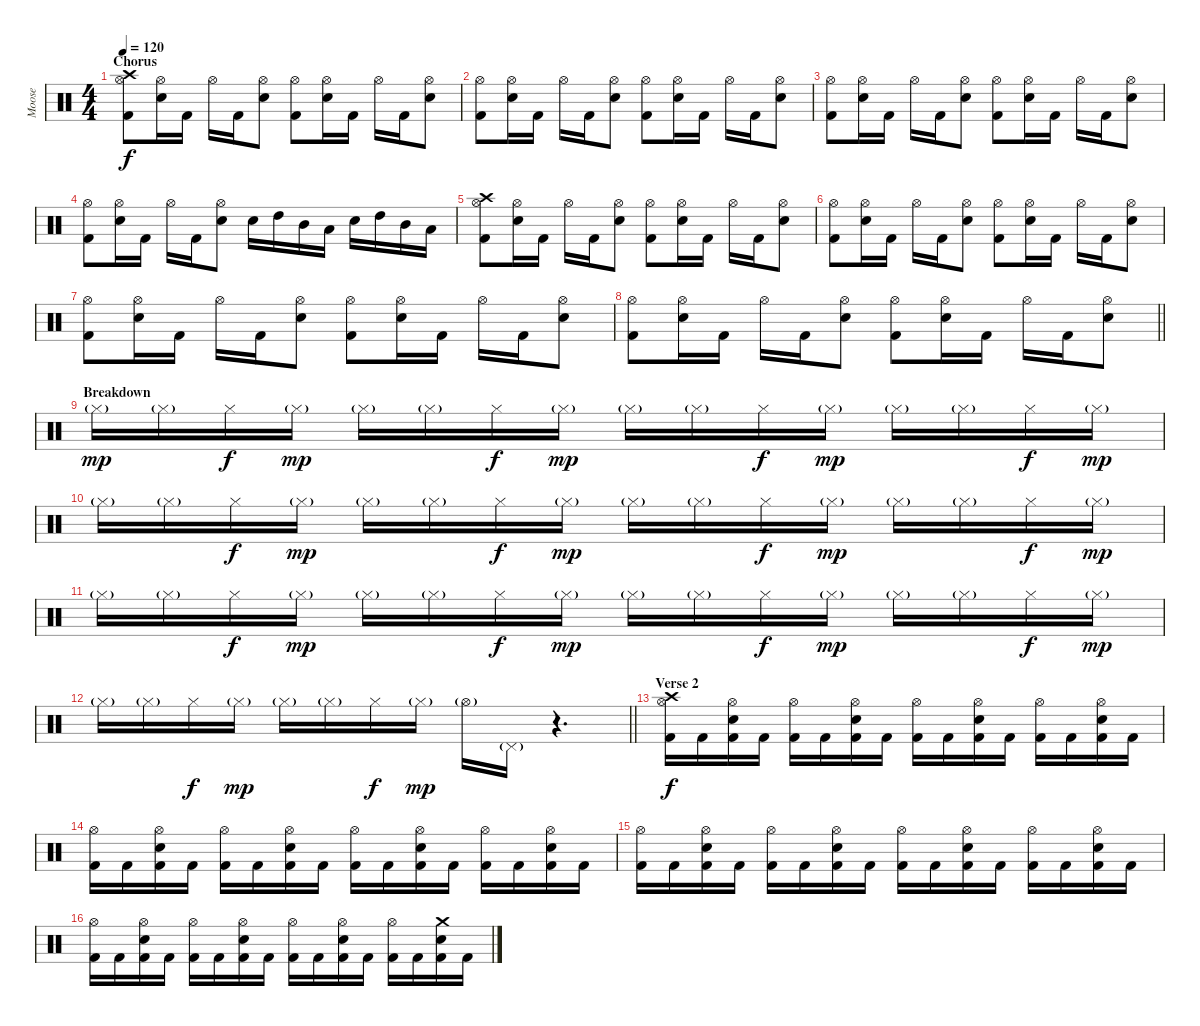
\track ("Moose" "Moose") {instrument percussion}
\staff {score}
\articulation defaults
\ts (4 4)
\section ("" "Chorus")
\tempo 120
\clef neutral
\ks c
("Crash high (hit)" "Hi-Hat (open)" "Kick (hit) 2").8{dy f} ("Hi-Hat (open)" "Electric Snare (hit)").16 "Kick (hit) 2".16 "Hi-Hat (open)".16 "Kick (hit) 2".16 ("Hi-Hat (open)" "Electric Snare (hit)").8 ("Hi-Hat (open)" "Kick (hit) 2").8 ("Hi-Hat (open)" "Electric Snare (hit)").16 "Kick (hit) 2".16 "Hi-Hat (open)".16 "Kick (hit) 2".16 ("Hi-Hat (open)" "Electric Snare (hit)").8 |
("Hi-Hat (open)" "Kick (hit) 2").8 ("Hi-Hat (open)" "Electric Snare (hit)").16 "Kick (hit) 2".16 "Hi-Hat (open)".16 "Kick (hit) 2".16 ("Hi-Hat (open)" "Electric Snare (hit)").8 ("Hi-Hat (open)" "Kick (hit) 2").8 ("Hi-Hat (open)" "Electric Snare (hit)").16 "Kick (hit) 2".16 "Hi-Hat (open)".16 "Kick (hit) 2".16 ("Hi-Hat (open)" "Electric Snare (hit)").8 |
("Hi-Hat (open)" "Kick (hit) 2").8 ("Hi-Hat (open)" "Electric Snare (hit)").16 "Kick (hit) 2".16 "Hi-Hat (open)".16 "Kick (hit) 2".16 ("Hi-Hat (open)" "Electric Snare (hit)").8 ("Hi-Hat (open)" "Kick (hit) 2").8 ("Hi-Hat (open)" "Electric Snare (hit)").16 "Kick (hit) 2".16 "Hi-Hat (open)".16 "Kick (hit) 2".16 ("Hi-Hat (open)" "Electric Snare (hit)").8 |
("Hi-Hat (open)" "Kick (hit) 2").8 ("Hi-Hat (open)" "Electric Snare (hit)").16 "Kick (hit) 2".16 "Hi-Hat (open)".16 "Kick (hit) 2".16 ("Hi-Hat (open)" "Electric Snare (hit)").8 "Electric Snare (hit)".16 "High Tom (hit)".16 "Mid Tom (hit)".16 "Low Tom (hit)".16 "Electric Snare (hit)".16 "High Tom (hit)".16 "Mid Tom (hit)".16 "Low Tom (hit)".16 |
("Crash high (hit)" "Hi-Hat (open)" "Kick (hit) 2").8 ("Hi-Hat (open)" "Electric Snare (hit)").16 "Kick (hit) 2".16 "Hi-Hat (open)".16 "Kick (hit) 2".16 ("Hi-Hat (open)" "Electric Snare (hit)").8 ("Hi-Hat (open)" "Kick (hit) 2").8 ("Hi-Hat (open)" "Electric Snare (hit)").16 "Kick (hit) 2".16 "Hi-Hat (open)".16 "Kick (hit) 2".16 ("Hi-Hat (open)" "Electric Snare (hit)").8 |
("Hi-Hat (open)" "Kick (hit) 2").8 ("Hi-Hat (open)" "Electric Snare (hit)").16 "Kick (hit) 2".16 "Hi-Hat (open)".16 "Kick (hit) 2".16 ("Hi-Hat (open)" "Electric Snare (hit)").8 ("Hi-Hat (open)" "Kick (hit) 2").8 ("Hi-Hat (open)" "Electric Snare (hit)").16 "Kick (hit) 2".16 "Hi-Hat (open)".16 "Kick (hit) 2".16 ("Hi-Hat (open)" "Electric Snare (hit)").8 |
("Hi-Hat (open)" "Kick (hit) 2").8 ("Hi-Hat (open)" "Electric Snare (hit)").16 "Kick (hit) 2".16 "Hi-Hat (open)".16 "Kick (hit) 2".16 ("Hi-Hat (open)" "Electric Snare (hit)").8 ("Hi-Hat (open)" "Kick (hit) 2").8 ("Hi-Hat (open)" "Electric Snare (hit)").16 "Kick (hit) 2".16 "Hi-Hat (open)".16 "Kick (hit) 2".16 ("Hi-Hat (open)" "Electric Snare (hit)").8 |
\barLineRight lightlight
("Hi-Hat (open)" "Kick (hit) 2").8 ("Hi-Hat (open)" "Electric Snare (hit)").16 "Kick (hit) 2".16 "Hi-Hat (open)".16 "Kick (hit) 2".16 ("Hi-Hat (open)" "Electric Snare (hit)").8 ("Hi-Hat (open)" "Kick (hit) 2").8 ("Hi-Hat (open)" "Electric Snare (hit)").16 "Kick (hit) 2".16 "Hi-Hat (open)".16 "Kick (hit) 2".16 ("Hi-Hat (open)" "Electric Snare (hit)").8 |
\section ("" "Breakdown")
"Hi-Hat (closed)"{g}.16{dy mp} "Hi-Hat (closed)"{g}.16 "Hi-Hat (closed)".16{dy f} "Hi-Hat (closed)"{g}.16{dy mp} "Hi-Hat (closed)"{g}.16 "Hi-Hat (closed)"{g}.16 "Hi-Hat (closed)".16{dy f} "Hi-Hat (closed)"{g}.16{dy mp} "Hi-Hat (closed)"{g}.16 "Hi-Hat (closed)"{g}.16 "Hi-Hat (closed)".16{dy f} "Hi-Hat (closed)"{g}.16{dy mp} "Hi-Hat (closed)"{g}.16 "Hi-Hat (closed)"{g}.16 "Hi-Hat (closed)".16{dy f} "Hi-Hat (closed)"{g}.16{dy mp} |
"Hi-Hat (closed)"{g}.16 "Hi-Hat (closed)"{g}.16 "Hi-Hat (closed)".16{dy f} "Hi-Hat (closed)"{g}.16{dy mp} "Hi-Hat (closed)"{g}.16 "Hi-Hat (closed)"{g}.16 "Hi-Hat (closed)".16{dy f} "Hi-Hat (closed)"{g}.16{dy mp} "Hi-Hat (closed)"{g}.16 "Hi-Hat (closed)"{g}.16 "Hi-Hat (closed)".16{dy f} "Hi-Hat (closed)"{g}.16{dy mp} "Hi-Hat (closed)"{g}.16 "Hi-Hat (closed)"{g}.16 "Hi-Hat (closed)".16{dy f} "Hi-Hat (closed)"{g}.16{dy mp} |
"Hi-Hat (closed)"{g}.16 "Hi-Hat (closed)"{g}.16 "Hi-Hat (closed)".16{dy f} "Hi-Hat (closed)"{g}.16{dy mp} "Hi-Hat (closed)"{g}.16 "Hi-Hat (closed)"{g}.16 "Hi-Hat (closed)".16{dy f} "Hi-Hat (closed)"{g}.16{dy mp} "Hi-Hat (closed)"{g}.16 "Hi-Hat (closed)"{g}.16 "Hi-Hat (closed)".16{dy f} "Hi-Hat (closed)"{g}.16{dy mp} "Hi-Hat (closed)"{g}.16 "Hi-Hat (closed)"{g}.16 "Hi-Hat (closed)".16{dy f} "Hi-Hat (closed)"{g}.16{dy mp} |
\barLineRight lightlight "Hi-Hat (closed)"{g}.16 "Hi-Hat (closed)"{g}.16 "Hi-Hat (closed)".16{dy f} "Hi-Hat (closed)"{g}.16{dy mp} "Hi-Hat (closed)"{g}.16 "Hi-Hat (closed)"{g}.16 "Hi-Hat (closed)".16{dy f} "Hi-Hat (closed)"{g}.16{dy mp} "Hi-Hat (open)"{g}.16 "Pedal Hi-Hat (hit)"{g}.16
r.4{d} |
\section ("" "Verse 2")
("Crash high (hit)" "Hi-Hat (open)" "Kick (hit) 2").16{dy f} "Kick (hit) 2".16 ("Hi-Hat (open)" "Electric Snare (hit)" "Kick (hit) 2").16 "Kick (hit) 2".16 ("Hi-Hat (open)" "Kick (hit) 2").16 "Kick (hit) 2".16 ("Hi-Hat (open)" "Electric Snare (hit)" "Kick (hit) 2").16 "Kick (hit) 2".16 ("Hi-Hat (open)" "Kick (hit) 2").16 "Kick (hit) 2".16 ("Hi-Hat (open)" "Electric Snare (hit)" "Kick (hit) 2").16 "Kick (hit) 2".16 ("Hi-Hat (open)" "Kick (hit) 2").16 "Kick (hit) 2".16 ("Hi-Hat (open)" "Electric Snare (hit)" "Kick (hit) 2").16 "Kick (hit) 2".16 |
("Hi-Hat (open)" "Kick (hit) 2").16 "Kick (hit) 2".16 ("Hi-Hat (open)" "Electric Snare (hit)" "Kick (hit) 2").16 "Kick (hit) 2".16 ("Hi-Hat (open)" "Kick (hit) 2").16 "Kick (hit) 2".16 ("Hi-Hat (open)" "Electric Snare (hit)" "Kick (hit) 2").16 "Kick (hit) 2".16 ("Hi-Hat (open)" "Kick (hit) 2").16 "Kick (hit) 2".16 ("Hi-Hat (open)" "Electric Snare (hit)" "Kick (hit) 2").16 "Kick (hit) 2".16 ("Hi-Hat (open)" "Kick (hit) 2").16 "Kick (hit) 2".16 ("Hi-Hat (open)" "Electric Snare (hit)" "Kick (hit) 2").16 "Kick (hit) 2".16 |
("Hi-Hat (open)" "Kick (hit) 2").16 "Kick (hit) 2".16 ("Hi-Hat (open)" "Electric Snare (hit)" "Kick (hit) 2").16 "Kick (hit) 2".16 ("Hi-Hat (open)" "Kick (hit) 2").16 "Kick (hit) 2".16 ("Hi-Hat (open)" "Electric Snare (hit)" "Kick (hit) 2").16 "Kick (hit) 2".16 ("Hi-Hat (open)" "Kick (hit) 2").16 "Kick (hit) 2".16 ("Hi-Hat (open)" "Electric Snare (hit)" "Kick (hit) 2").16 "Kick (hit) 2".16 ("Hi-Hat (open)" "Kick (hit) 2").16 "Kick (hit) 2".16 ("Hi-Hat (open)" "Electric Snare (hit)" "Kick (hit) 2").16 "Kick (hit) 2".16 |
("Hi-Hat (open)" "Kick (hit) 2").16 "Kick (hit) 2".16 ("Hi-Hat (open)" "Electric Snare (hit)" "Kick (hit) 2").16 "Kick (hit) 2".16 ("Hi-Hat (open)" "Kick (hit) 2").16 "Kick (hit) 2".16 ("Hi-Hat (open)" "Electric Snare (hit)" "Kick (hit) 2").16 "Kick (hit) 2".16 ("Hi-Hat (open)" "Kick (hit) 2").16 "Kick (hit) 2".16 ("Hi-Hat (open)" "Electric Snare (hit)" "Kick (hit) 2").16 "Kick (hit) 2".16 ("Hi-Hat (open)" "Kick (hit) 2").16 "Kick (hit) 2".16 ("Crash medium (hit)" "Electric Snare (hit)" "Kick (hit) 2").16 "Kick (hit) 2".16
